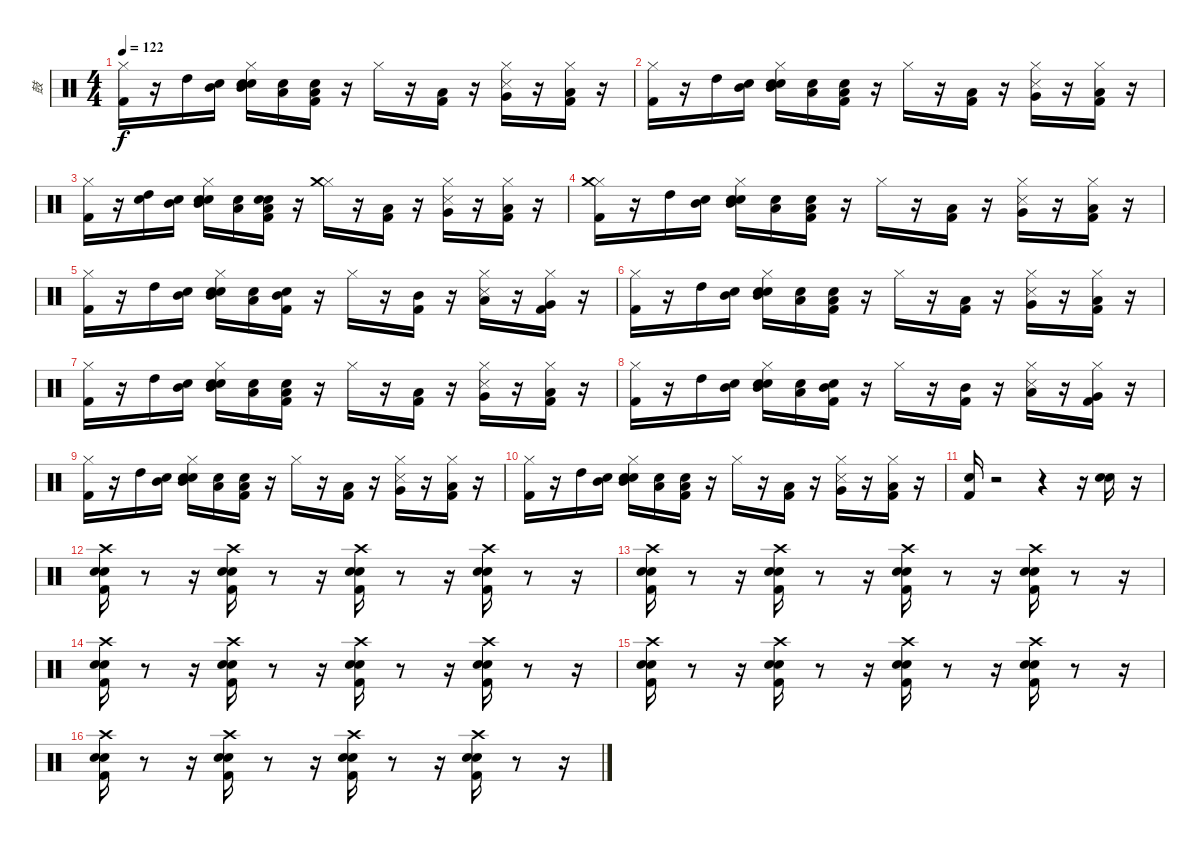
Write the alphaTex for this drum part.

\track ("鼓" "鼓") {instrument percussion}
\staff {score}
\articulation defaults
\ts (4 4)
\tempo 122
\clef neutral
\ks c
("Hi-Hat (closed)" "Kick (hit) 2").16{dy f} r.16 "High Tom (hit)".16 ("Snare (hit)" "Mid Tom (hit)").16 ("Snare (hit)" "Snare (hit) 2" "Hi-Hat (closed)" "Mid Tom (hit)").16 ("Snare (hit)" "Low Tom (hit)").16 ("Snare (hit)" "Low Tom (hit)" "Kick (hit) 2").16 r.16 "Hi-Hat (closed)".16 r.16 ("Kick (hit) 2" "Low Tom (hit)").16 r.16 ("Hi-Hat (closed)" "Very Low Tom (hit)" "Snare (side stick) 3").16 r.16 ("Kick (hit) 2" "Low Floor Tom (hit)" "Hi-Hat (closed)").16 r.16 |
("Hi-Hat (closed)" "Kick (hit) 2").16 r.16 "High Tom (hit)".16 ("Snare (hit)" "Mid Tom (hit)").16 ("Snare (hit)" "Snare (hit) 2" "Hi-Hat (closed)" "Mid Tom (hit)").16 ("Snare (hit)" "Low Tom (hit)").16 ("Snare (hit)" "Low Tom (hit)" "Kick (hit) 2").16 r.16 "Hi-Hat (closed)".16 r.16 ("Kick (hit) 2" "Low Tom (hit)").16 r.16 ("Hi-Hat (closed)" "Very Low Tom (hit)" "Snare (side stick) 3").16 r.16 ("Kick (hit) 2" "Low Floor Tom (hit)" "Hi-Hat (closed)").16 r.16 |
("Hi-Hat (closed)" "Kick (hit) 2").16 r.16 ("High Tom (hit)" "Snare (hit) 2").16 ("Snare (hit)" "Mid Tom (hit)").16 ("Snare (hit)" "Snare (hit) 2" "Hi-Hat (closed)" "Mid Tom (hit)").16 ("Snare (hit)" "Low Tom (hit)").16 ("Snare (hit)" "Low Tom (hit)" "Kick (hit) 2" "Snare (hit) 2").16 r.16 ("Hi-Hat (closed)" "Crash medium (hit)").16 r.16 ("Kick (hit) 2" "Low Tom (hit)").16 r.16 ("Hi-Hat (closed)" "Very Low Tom (hit)" "Snare (side stick) 3").16 r.16 ("Kick (hit) 2" "Low Floor Tom (hit)" "Hi-Hat (closed)").16 r.16 |
("Kick (hit) 2" "Hi-Hat (closed)" "Crash medium (hit)").16 r.16 "High Tom (hit)".16 ("Snare (hit)" "Mid Tom (hit)").16 ("Snare (hit)" "Snare (hit) 2" "Mid Tom (hit)" "Hi-Hat (closed)").16 ("Snare (hit)" "Low Tom (hit)").16 ("Snare (hit)" "Low Tom (hit)" "Kick (hit) 2").16 r.16 "Hi-Hat (closed)".16 r.16 ("Kick (hit) 2" "Low Tom (hit)").16 r.16 ("Very Low Tom (hit)" "Hi-Hat (closed)" "Snare (side stick) 3").16 r.16 ("Kick (hit) 2" "Low Floor Tom (hit)" "Hi-Hat (closed)").16 r.16 |
("Kick (hit) 2" "Hi-Hat (closed)").16 r.16 "High Tom (hit)".16 ("Snare (hit)" "Mid Tom (hit)").16 ("Snare (hit)" "Snare (hit) 2" "Hi-Hat (closed)" "Mid Tom (hit)").16 ("Snare (hit)" "Low Tom (hit)").16 ("Snare (hit)" "Kick (hit) 2" "Mid Tom (hit)").16 r.16 "Hi-Hat (closed)".16 r.16 ("Kick (hit) 2" "Mid Tom (hit)").16 r.16 ("Hi-Hat (closed)" "Low Tom (hit)" "Snare (side stick) 3").16 r.16 ("Kick (hit) 2" "Very Low Tom (hit)" "Hi-Hat (closed)").16 r.16 |
("Hi-Hat (closed)" "Kick (hit) 2").16 r.16 "High Tom (hit)".16 ("Snare (hit)" "Mid Tom (hit)").16 ("Snare (hit)" "Snare (hit) 2" "Hi-Hat (closed)" "Mid Tom (hit)").16 ("Snare (hit)" "Low Tom (hit)").16 ("Snare (hit)" "Low Tom (hit)" "Kick (hit) 2").16 r.16 "Hi-Hat (closed)".16 r.16 ("Kick (hit) 2" "Low Tom (hit)").16 r.16 ("Hi-Hat (closed)" "Very Low Tom (hit)" "Snare (side stick) 3").16 r.16 ("Kick (hit) 2" "Low Floor Tom (hit)" "Hi-Hat (closed)").16 r.16 |
("Hi-Hat (closed)" "Kick (hit) 2").16 r.16 "High Tom (hit)".16 ("Snare (hit)" "Mid Tom (hit)").16 ("Snare (hit)" "Snare (hit) 2" "Hi-Hat (closed)" "Mid Tom (hit)").16 ("Snare (hit)" "Low Tom (hit)").16 ("Snare (hit)" "Low Tom (hit)" "Kick (hit) 2").16 r.16 "Hi-Hat (closed)".16 r.16 ("Kick (hit) 2" "Low Tom (hit)").16 r.16 ("Hi-Hat (closed)" "Very Low Tom (hit)" "Snare (side stick) 3").16 r.16 ("Kick (hit) 2" "Low Floor Tom (hit)" "Hi-Hat (closed)").16 r.16 |
("Kick (hit) 2" "Hi-Hat (closed)").16 r.16 "High Tom (hit)".16 ("Snare (hit)" "Mid Tom (hit)").16 ("Snare (hit)" "Snare (hit) 2" "Hi-Hat (closed)" "Mid Tom (hit)").16 ("Snare (hit)" "Low Tom (hit)").16 ("Snare (hit)" "Kick (hit) 2" "Mid Tom (hit)").16 r.16 "Hi-Hat (closed)".16 r.16 ("Kick (hit) 2" "Mid Tom (hit)").16 r.16 ("Hi-Hat (closed)" "Low Tom (hit)" "Snare (side stick) 3").16 r.16 ("Kick (hit) 2" "Very Low Tom (hit)" "Hi-Hat (closed)").16 r.16 |
("Hi-Hat (closed)" "Kick (hit) 2").16 r.16 "High Tom (hit)".16 ("Snare (hit)" "Mid Tom (hit)").16 ("Snare (hit)" "Snare (hit) 2" "Hi-Hat (closed)" "Mid Tom (hit)").16 ("Snare (hit)" "Low Tom (hit)").16 ("Snare (hit)" "Low Tom (hit)" "Kick (hit) 2").16 r.16 "Hi-Hat (closed)".16 r.16 ("Kick (hit) 2" "Low Tom (hit)").16 r.16 ("Hi-Hat (closed)" "Very Low Tom (hit)" "Snare (side stick) 3").16 r.16 ("Kick (hit) 2" "Low Floor Tom (hit)" "Hi-Hat (closed)").16 r.16 |
("Hi-Hat (closed)" "Kick (hit) 2").16 r.16 "High Tom (hit)".16 ("Snare (hit)" "Mid Tom (hit)").16 ("Snare (hit)" "Snare (hit) 2" "Hi-Hat (closed)" "Mid Tom (hit)").16 ("Snare (hit)" "Low Tom (hit)").16 ("Snare (hit)" "Low Tom (hit)" "Kick (hit) 2").16 r.16 "Hi-Hat (closed)".16 r.16 ("Kick (hit) 2" "Low Tom (hit)").16 r.16 ("Hi-Hat (closed)" "Very Low Tom (hit)" "Snare (side stick) 3").16 r.16 ("Kick (hit) 2" "Low Floor Tom (hit)" "Hi-Hat (closed)").16 r.16 |
("Kick (hit) 2" "Electric Snare (hit)").16 r.2 r.4 r.16 ("Snare (hit) 2" "Electric Snare (hit)").16 r.16 |
("Crash high (hit)" "Electric Snare (hit)" "Snare (hit) 2" "Kick (hit) 2").16 r.8 r.16 ("Crash high (hit)" "Kick (hit) 2" "Snare (hit) 2" "Electric Snare (hit)").16 r.8 r.16 ("Crash high (hit)" "Kick (hit) 2" "Snare (hit) 2" "Electric Snare (hit)").16 r.8 r.16 ("Crash high (hit)" "Kick (hit) 2" "Snare (hit) 2" "Electric Snare (hit)").16 r.8 r.16 |
("Crash high (hit)" "Kick (hit) 2" "Snare (hit) 2" "Electric Snare (hit)").16 r.8 r.16 ("Crash high (hit)" "Kick (hit) 2" "Snare (hit) 2" "Electric Snare (hit)").16 r.8 r.16 ("Crash high (hit)" "Kick (hit) 2" "Snare (hit) 2" "Electric Snare (hit)").16 r.8 r.16 ("Crash high (hit)" "Kick (hit) 2" "Snare (hit) 2" "Electric Snare (hit)").16 r.8 r.16 |
("Crash high (hit)" "Kick (hit) 2" "Snare (hit) 2" "Electric Snare (hit)").16 r.8 r.16 ("Crash high (hit)" "Kick (hit) 2" "Snare (hit) 2" "Electric Snare (hit)").16 r.8 r.16 ("Crash high (hit)" "Kick (hit) 2" "Snare (hit) 2" "Electric Snare (hit)").16 r.8 r.16 ("Crash high (hit)" "Kick (hit) 2" "Snare (hit) 2" "Electric Snare (hit)").16 r.8 r.16 |
("Crash high (hit)" "Kick (hit) 2" "Snare (hit) 2" "Electric Snare (hit)").16 r.8 r.16 ("Crash high (hit)" "Kick (hit) 2" "Snare (hit) 2" "Electric Snare (hit)").16 r.8 r.16 ("Crash high (hit)" "Kick (hit) 2" "Snare (hit) 2" "Electric Snare (hit)").16 r.8 r.16 ("Crash high (hit)" "Kick (hit) 2" "Snare (hit) 2" "Electric Snare (hit)").16 r.8 r.16 |
("Crash high (hit)" "Kick (hit) 2" "Snare (hit) 2" "Electric Snare (hit)").16 r.8 r.16 ("Crash high (hit)" "Kick (hit) 2" "Snare (hit) 2" "Electric Snare (hit)").16 r.8 r.16 ("Crash high (hit)" "Kick (hit) 2" "Snare (hit) 2" "Electric Snare (hit)").16 r.8 r.16 ("Crash high (hit)" "Kick (hit) 2" "Snare (hit) 2" "Electric Snare (hit)").16 r.8 r.16
